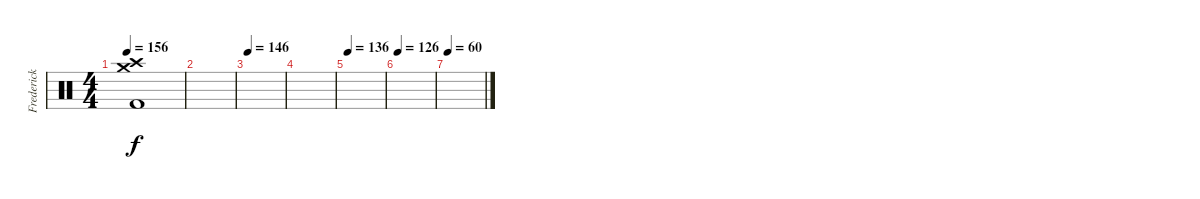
\track ("Frederick Ehmke" "Frederick ") {instrument percussion}
\staff {score}
\articulation defaults
\ts (4 4)
\tempo 156
\clef neutral
\ks c
("Crash high (hit)" "Kick (hit) 2" "Crash medium (hit)").1{dy f} |
|
\tempo 146
|
|
\tempo 136
|
\tempo 126
|
\tempo 60
